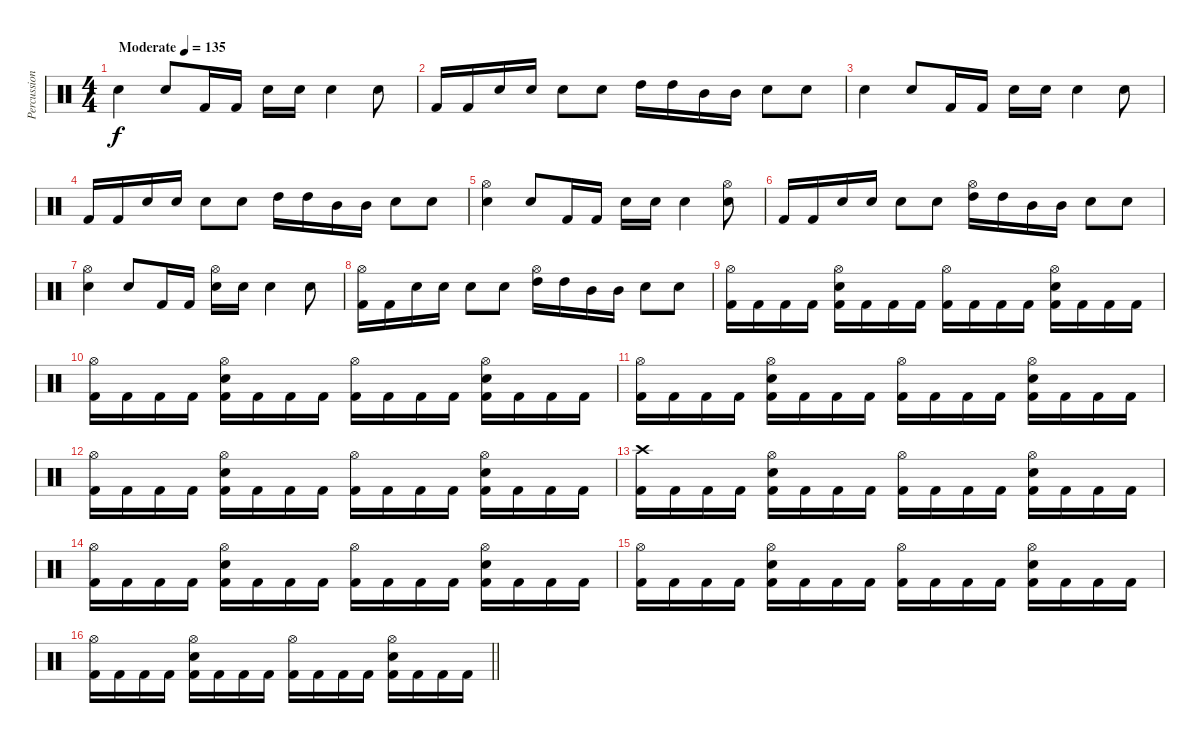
\track ("Percussion" "Percussion") {instrument percussion}
\staff {score}
\articulation defaults
\ts (4 4)
\tempo (135 "Moderate")
\clef neutral
\ks c "Electric Snare (hit)".4{dy f} "Electric Snare (hit)".8 "Kick (hit) 2".16 "Kick (hit) 2".16 "Electric Snare (hit)".16 "Electric Snare (hit)".16 "Electric Snare (hit)".4 "Electric Snare (hit)".8
|
"Kick (hit) 2".16 "Kick (hit) 2".16 "Electric Snare (hit)".16 "Electric Snare (hit)".16 "Electric Snare (hit)".8 "Electric Snare (hit)".8 "High Tom (hit)".16 "High Tom (hit)".16 "Mid Tom (hit)".16 "Mid Tom (hit)".16 "Electric Snare (hit)".8 "Electric Snare (hit)".8 |
"Electric Snare (hit)".4 "Electric Snare (hit)".8 "Kick (hit) 2".16 "Kick (hit) 2".16 "Electric Snare (hit)".16 "Electric Snare (hit)".16 "Electric Snare (hit)".4 "Electric Snare (hit)".8 |
"Kick (hit) 2".16 "Kick (hit) 2".16 "Electric Snare (hit)".16 "Electric Snare (hit)".16 "Electric Snare (hit)".8 "Electric Snare (hit)".8 "High Tom (hit)".16 "High Tom (hit)".16 "Mid Tom (hit)".16 "Mid Tom (hit)".16 "Electric Snare (hit)".8 "Electric Snare (hit)".8 |
("Electric Snare (hit)" "Hi-Hat (open)").4 "Electric Snare (hit)".8 "Kick (hit) 2".16 "Kick (hit) 2".16 "Electric Snare (hit)".16 "Electric Snare (hit)".16 "Electric Snare (hit)".4 ("Electric Snare (hit)" "Hi-Hat (open)").8 |
"Kick (hit) 2".16 "Kick (hit) 2".16 "Electric Snare (hit)".16 "Electric Snare (hit)".16 "Electric Snare (hit)".8 "Electric Snare (hit)".8 ("High Tom (hit)" "Hi-Hat (open)").16 "High Tom (hit)".16 "Mid Tom (hit)".16 "Mid Tom (hit)".16 "Electric Snare (hit)".8 "Electric Snare (hit)".8 |
("Electric Snare (hit)" "Hi-Hat (open)").4 "Electric Snare (hit)".8 "Kick (hit) 2".16 "Kick (hit) 2".16 ("Electric Snare (hit)" "Hi-Hat (open)").16 "Electric Snare (hit)".16 "Electric Snare (hit)".4 "Electric Snare (hit)".8 |
("Kick (hit) 2" "Hi-Hat (open)").16 "Kick (hit) 2".16 "Electric Snare (hit)".16 "Electric Snare (hit)".16 "Electric Snare (hit)".8 "Electric Snare (hit)".8 ("High Tom (hit)" "Hi-Hat (open)").16 "High Tom (hit)".16 "Mid Tom (hit)".16 "Mid Tom (hit)".16 "Electric Snare (hit)".8 "Electric Snare (hit)".8 |
("Kick (hit) 2" "Hi-Hat (open)").16 "Kick (hit) 2".16 "Kick (hit) 2".16 "Kick (hit) 2".16 ("Kick (hit) 2" "Hi-Hat (open)" "Electric Snare (hit)").16 "Kick (hit) 2".16 "Kick (hit) 2".16 "Kick (hit) 2".16 ("Kick (hit) 2" "Hi-Hat (open)").16 "Kick (hit) 2".16 "Kick (hit) 2".16 "Kick (hit) 2".16 ("Kick (hit) 2" "Hi-Hat (open)" "Electric Snare (hit)").16 "Kick (hit) 2".16 "Kick (hit) 2".16 "Kick (hit) 2".16 |
("Kick (hit) 2" "Hi-Hat (open)").16 "Kick (hit) 2".16 "Kick (hit) 2".16 "Kick (hit) 2".16 ("Kick (hit) 2" "Hi-Hat (open)" "Electric Snare (hit)").16 "Kick (hit) 2".16 "Kick (hit) 2".16 "Kick (hit) 2".16 ("Kick (hit) 2" "Hi-Hat (open)").16 "Kick (hit) 2".16 "Kick (hit) 2".16 "Kick (hit) 2".16 ("Kick (hit) 2" "Hi-Hat (open)" "Electric Snare (hit)").16 "Kick (hit) 2".16 "Kick (hit) 2".16 "Kick (hit) 2".16 |
("Kick (hit) 2" "Hi-Hat (open)").16 "Kick (hit) 2".16 "Kick (hit) 2".16 "Kick (hit) 2".16 ("Kick (hit) 2" "Hi-Hat (open)" "Electric Snare (hit)").16 "Kick (hit) 2".16 "Kick (hit) 2".16 "Kick (hit) 2".16 ("Kick (hit) 2" "Hi-Hat (open)").16 "Kick (hit) 2".16 "Kick (hit) 2".16 "Kick (hit) 2".16 ("Kick (hit) 2" "Hi-Hat (open)" "Electric Snare (hit)").16 "Kick (hit) 2".16 "Kick (hit) 2".16 "Kick (hit) 2".16 |
("Kick (hit) 2" "Hi-Hat (open)").16 "Kick (hit) 2".16 "Kick (hit) 2".16 "Kick (hit) 2".16 ("Kick (hit) 2" "Hi-Hat (open)" "Electric Snare (hit)").16 "Kick (hit) 2".16 "Kick (hit) 2".16 "Kick (hit) 2".16 ("Kick (hit) 2" "Hi-Hat (open)").16 "Kick (hit) 2".16 "Kick (hit) 2".16 "Kick (hit) 2".16 ("Kick (hit) 2" "Hi-Hat (open)" "Electric Snare (hit)").16 "Kick (hit) 2".16 "Kick (hit) 2".16 "Kick (hit) 2".16 |
("Kick (hit) 2" "Crash high (hit)").16 "Kick (hit) 2".16 "Kick (hit) 2".16 "Kick (hit) 2".16 ("Kick (hit) 2" "Hi-Hat (open)" "Electric Snare (hit)").16 "Kick (hit) 2".16 "Kick (hit) 2".16 "Kick (hit) 2".16 ("Kick (hit) 2" "Hi-Hat (open)").16 "Kick (hit) 2".16 "Kick (hit) 2".16 "Kick (hit) 2".16 ("Kick (hit) 2" "Hi-Hat (open)" "Electric Snare (hit)").16 "Kick (hit) 2".16 "Kick (hit) 2".16 "Kick (hit) 2".16 |
("Kick (hit) 2" "Hi-Hat (open)").16 "Kick (hit) 2".16 "Kick (hit) 2".16 "Kick (hit) 2".16 ("Kick (hit) 2" "Hi-Hat (open)" "Electric Snare (hit)").16 "Kick (hit) 2".16 "Kick (hit) 2".16 "Kick (hit) 2".16 ("Kick (hit) 2" "Hi-Hat (open)").16 "Kick (hit) 2".16 "Kick (hit) 2".16 "Kick (hit) 2".16 ("Kick (hit) 2" "Hi-Hat (open)" "Electric Snare (hit)").16 "Kick (hit) 2".16 "Kick (hit) 2".16 "Kick (hit) 2".16 |
("Kick (hit) 2" "Hi-Hat (open)").16 "Kick (hit) 2".16 "Kick (hit) 2".16 "Kick (hit) 2".16 ("Kick (hit) 2" "Hi-Hat (open)" "Electric Snare (hit)").16 "Kick (hit) 2".16 "Kick (hit) 2".16 "Kick (hit) 2".16 ("Kick (hit) 2" "Hi-Hat (open)").16 "Kick (hit) 2".16 "Kick (hit) 2".16 "Kick (hit) 2".16 ("Kick (hit) 2" "Hi-Hat (open)" "Electric Snare (hit)").16 "Kick (hit) 2".16 "Kick (hit) 2".16 "Kick (hit) 2".16 |
\barLineRight lightlight
("Kick (hit) 2" "Hi-Hat (open)").16 "Kick (hit) 2".16 "Kick (hit) 2".16 "Kick (hit) 2".16 ("Kick (hit) 2" "Hi-Hat (open)" "Electric Snare (hit)").16 "Kick (hit) 2".16 "Kick (hit) 2".16 "Kick (hit) 2".16 ("Kick (hit) 2" "Hi-Hat (open)").16 "Kick (hit) 2".16 "Kick (hit) 2".16 "Kick (hit) 2".16 ("Kick (hit) 2" "Hi-Hat (open)" "Electric Snare (hit)").16 "Kick (hit) 2".16 "Kick (hit) 2".16 "Kick (hit) 2".16
